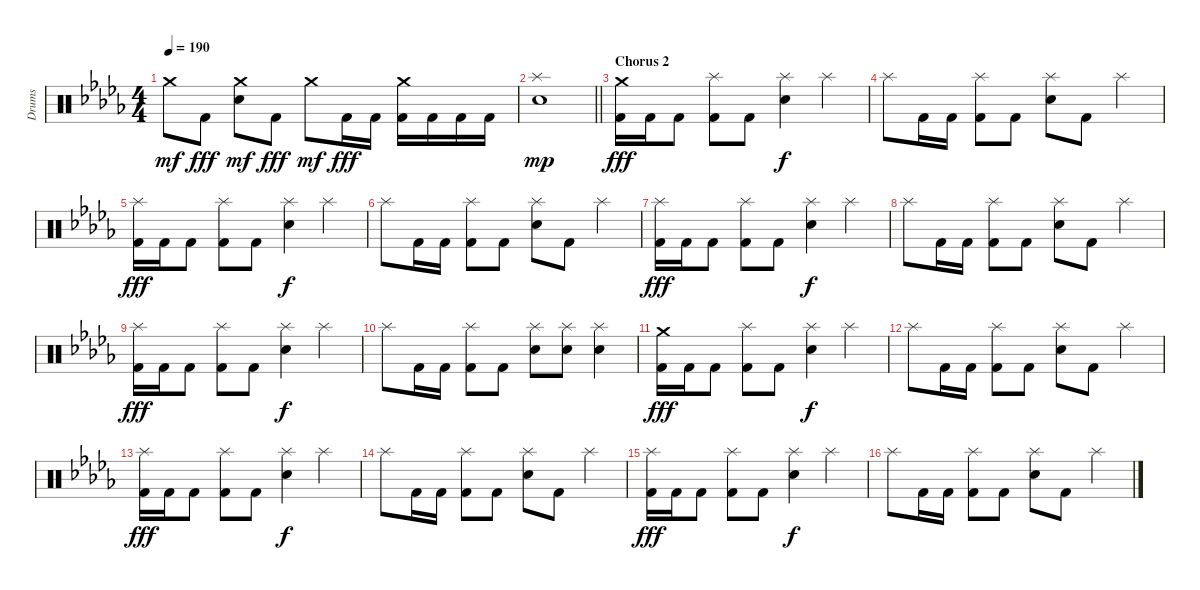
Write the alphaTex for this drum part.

\track ("Drums" "Drums") {instrument percussion}
\staff {score}
\articulation defaults
\ts (4 4)
\tempo 190
\clef neutral
\ks db "Crash medium (hit)".8{dy mf} "Kick (hit) 2".8{dy fff}
("Crash medium (hit)" "Electric Snare (hit)").8{dy mf} "Kick (hit) 2".8{dy fff} "Crash medium (hit)".8{dy mf} "Kick (hit) 2".16{dy fff} "Kick (hit) 2".16 ("Crash medium (hit)" "Kick (hit) 2").16 "Kick (hit) 2".16 "Kick (hit) 2".16 "Kick (hit) 2".16 |
\barLineRight lightlight
("Splash (hit)" "Electric Snare (hit)").1{dy mp} |
\section ("" "Chorus 2")
("Crash medium (hit)" "Kick (hit) 2").16{dy fff} "Kick (hit) 2".16 "Kick (hit) 2".8 ("Splash (hit)" "Kick (hit) 2").8 "Kick (hit) 2".8 ("Splash (hit)" "Electric Snare (hit)").4{dy f} "Splash (hit)".4 |
"Splash (hit)".8 "Kick (hit) 2".16 "Kick (hit) 2".16 ("Splash (hit)" "Kick (hit) 2").8 "Kick (hit) 2".8 ("Splash (hit)" "Electric Snare (hit)").8 "Kick (hit) 2".8 "Splash (hit)".4 |
("Splash (hit)" "Kick (hit) 2").16{dy fff} "Kick (hit) 2".16 "Kick (hit) 2".8 ("Splash (hit)" "Kick (hit) 2").8 "Kick (hit) 2".8 ("Splash (hit)" "Electric Snare (hit)").4{dy f} "Splash (hit)".4 |
"Splash (hit)".8 "Kick (hit) 2".16 "Kick (hit) 2".16 ("Splash (hit)" "Kick (hit) 2").8 "Kick (hit) 2".8 ("Splash (hit)" "Electric Snare (hit)").8 "Kick (hit) 2".8 "Splash (hit)".4 |
("Splash (hit)" "Kick (hit) 2").16{dy fff} "Kick (hit) 2".16 "Kick (hit) 2".8 ("Splash (hit)" "Kick (hit) 2").8 "Kick (hit) 2".8 ("Splash (hit)" "Electric Snare (hit)").4{dy f} "Splash (hit)".4 |
"Splash (hit)".8 "Kick (hit) 2".16 "Kick (hit) 2".16 ("Splash (hit)" "Kick (hit) 2").8 "Kick (hit) 2".8 ("Splash (hit)" "Electric Snare (hit)").8 "Kick (hit) 2".8 "Splash (hit)".4 |
("Splash (hit)" "Kick (hit) 2").16{dy fff} "Kick (hit) 2".16 "Kick (hit) 2".8 ("Splash (hit)" "Kick (hit) 2").8 "Kick (hit) 2".8 ("Splash (hit)" "Electric Snare (hit)").4{dy f} "Splash (hit)".4 |
"Splash (hit)".8 "Kick (hit) 2".16 "Kick (hit) 2".16 ("Splash (hit)" "Kick (hit) 2").8 "Kick (hit) 2".8 ("Splash (hit)" "Electric Snare (hit)").8 ("Splash (hit)" "Electric Snare (hit)").8 ("Splash (hit)" "Electric Snare (hit)").4 |
("Crash medium (hit)" "Kick (hit) 2").16{dy fff} "Kick (hit) 2".16 "Kick (hit) 2".8 ("Splash (hit)" "Kick (hit) 2").8 "Kick (hit) 2".8 ("Splash (hit)" "Electric Snare (hit)").4{dy f} "Splash (hit)".4 |
"Splash (hit)".8 "Kick (hit) 2".16 "Kick (hit) 2".16 ("Splash (hit)" "Kick (hit) 2").8 "Kick (hit) 2".8 ("Splash (hit)" "Electric Snare (hit)").8 "Kick (hit) 2".8 "Splash (hit)".4 |
("Splash (hit)" "Kick (hit) 2").16{dy fff} "Kick (hit) 2".16 "Kick (hit) 2".8 ("Splash (hit)" "Kick (hit) 2").8 "Kick (hit) 2".8 ("Splash (hit)" "Electric Snare (hit)").4{dy f} "Splash (hit)".4 |
"Splash (hit)".8 "Kick (hit) 2".16 "Kick (hit) 2".16 ("Splash (hit)" "Kick (hit) 2").8 "Kick (hit) 2".8 ("Splash (hit)" "Electric Snare (hit)").8 "Kick (hit) 2".8 "Splash (hit)".4 |
("Splash (hit)" "Kick (hit) 2").16{dy fff} "Kick (hit) 2".16 "Kick (hit) 2".8 ("Splash (hit)" "Kick (hit) 2").8 "Kick (hit) 2".8 ("Splash (hit)" "Electric Snare (hit)").4{dy f} "Splash (hit)".4 |
"Splash (hit)".8 "Kick (hit) 2".16 "Kick (hit) 2".16 ("Splash (hit)" "Kick (hit) 2").8 "Kick (hit) 2".8 ("Splash (hit)" "Electric Snare (hit)").8 "Kick (hit) 2".8 "Splash (hit)".4
